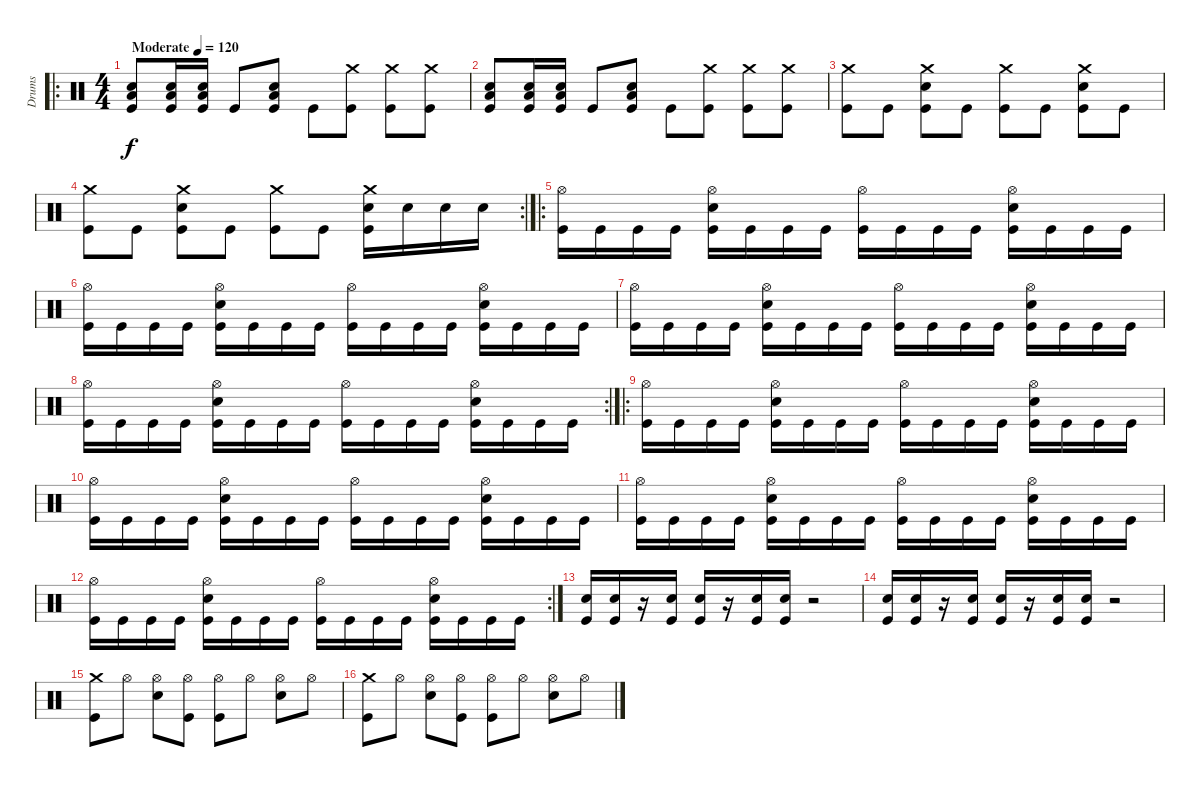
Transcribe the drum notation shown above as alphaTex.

\track ("Drums" "Drums") {instrument percussion}
\staff {score}
\articulation defaults
\ro
\ts (4 4)
\tempo (120 "Moderate")
\clef neutral
\ks c
("Snare (hit) 2" "Low Floor Tom (hit)" "Kick (hit)").8{dy f} ("Snare (hit) 2" "Low Floor Tom (hit)" "Kick (hit)").16 ("Snare (hit) 2" "Low Floor Tom (hit)" "Kick (hit)").16 "Kick (hit)".8 ("Snare (hit) 2" "Low Floor Tom (hit)" "Kick (hit)").8 "Kick (hit)".8 ("Crash medium (hit)" "Kick (hit)").8 ("Crash medium (hit)" "Kick (hit)").8 ("Crash medium (hit)" "Kick (hit)").8 |
("Snare (hit) 2" "Low Floor Tom (hit)" "Kick (hit)").8 ("Snare (hit) 2" "Low Floor Tom (hit)" "Kick (hit)").16 ("Snare (hit) 2" "Low Floor Tom (hit)" "Kick (hit)").16 "Kick (hit)".8 ("Snare (hit) 2" "Low Floor Tom (hit)" "Kick (hit)").8 "Kick (hit)".8 ("Crash medium (hit)" "Kick (hit)").8 ("Crash medium (hit)" "Kick (hit)").8 ("Crash medium (hit)" "Kick (hit)").8 |
("Crash medium (hit)" "Kick (hit)").8 "Kick (hit)".8 ("Crash medium (hit)" "Snare (hit) 2" "Kick (hit)").8 "Kick (hit)".8 ("Crash medium (hit)" "Kick (hit)").8 "Kick (hit)".8 ("Crash medium (hit)" "Snare (hit) 2" "Kick (hit)").8 "Kick (hit)".8 |
\rc 2
("Crash medium (hit)" "Kick (hit)").8 "Kick (hit)".8 ("Crash medium (hit)" "Snare (hit) 2" "Kick (hit)").8 "Kick (hit)".8 ("Crash medium (hit)" "Kick (hit)").8 "Kick (hit)".8 ("Crash medium (hit)" "Snare (hit) 2" "Kick (hit)").16 "Snare (hit) 2".16 "Snare (hit) 2".16 "Snare (hit) 2".16 |
\ro
("Hi-Hat (open)" "Kick (hit)").16 "Kick (hit)".16 "Kick (hit)".16 "Kick (hit)".16 ("Hi-Hat (open)" "Snare (hit) 2" "Kick (hit)").16 "Kick (hit)".16 "Kick (hit)".16 "Kick (hit)".16 ("Hi-Hat (open)" "Kick (hit)").16 "Kick (hit)".16 "Kick (hit)".16 "Kick (hit)".16 ("Hi-Hat (open)" "Snare (hit) 2" "Kick (hit)").16 "Kick (hit)".16 "Kick (hit)".16 "Kick (hit)".16 |
("Hi-Hat (open)" "Kick (hit)").16 "Kick (hit)".16 "Kick (hit)".16 "Kick (hit)".16 ("Hi-Hat (open)" "Snare (hit) 2" "Kick (hit)").16 "Kick (hit)".16 "Kick (hit)".16 "Kick (hit)".16 ("Hi-Hat (open)" "Kick (hit)").16 "Kick (hit)".16 "Kick (hit)".16 "Kick (hit)".16 ("Hi-Hat (open)" "Snare (hit) 2" "Kick (hit)").16 "Kick (hit)".16 "Kick (hit)".16 "Kick (hit)".16 |
("Hi-Hat (open)" "Kick (hit)").16 "Kick (hit)".16 "Kick (hit)".16 "Kick (hit)".16 ("Hi-Hat (open)" "Snare (hit) 2" "Kick (hit)").16 "Kick (hit)".16 "Kick (hit)".16 "Kick (hit)".16 ("Hi-Hat (open)" "Kick (hit)").16 "Kick (hit)".16 "Kick (hit)".16 "Kick (hit)".16 ("Hi-Hat (open)" "Snare (hit) 2" "Kick (hit)").16 "Kick (hit)".16 "Kick (hit)".16 "Kick (hit)".16 |
\rc 2
("Hi-Hat (open)" "Kick (hit)").16 "Kick (hit)".16 "Kick (hit)".16 "Kick (hit)".16 ("Hi-Hat (open)" "Snare (hit) 2" "Kick (hit)").16 "Kick (hit)".16 "Kick (hit)".16 "Kick (hit)".16 ("Hi-Hat (open)" "Kick (hit)").16 "Kick (hit)".16 "Kick (hit)".16 "Kick (hit)".16 ("Hi-Hat (open)" "Snare (hit) 2" "Kick (hit)").16 "Kick (hit)".16 "Kick (hit)".16 "Kick (hit)".16 |
\ro
("Hi-Hat (open)" "Kick (hit)").16 "Kick (hit)".16 "Kick (hit)".16 "Kick (hit)".16 ("Hi-Hat (open)" "Snare (hit) 2" "Kick (hit)").16 "Kick (hit)".16 "Kick (hit)".16 "Kick (hit)".16 ("Hi-Hat (open)" "Kick (hit)").16 "Kick (hit)".16 "Kick (hit)".16 "Kick (hit)".16 ("Hi-Hat (open)" "Snare (hit) 2" "Kick (hit)").16 "Kick (hit)".16 "Kick (hit)".16 "Kick (hit)".16 |
("Hi-Hat (open)" "Kick (hit)").16 "Kick (hit)".16 "Kick (hit)".16 "Kick (hit)".16 ("Hi-Hat (open)" "Snare (hit) 2" "Kick (hit)").16 "Kick (hit)".16 "Kick (hit)".16 "Kick (hit)".16 ("Hi-Hat (open)" "Kick (hit)").16 "Kick (hit)".16 "Kick (hit)".16 "Kick (hit)".16 ("Hi-Hat (open)" "Snare (hit) 2" "Kick (hit)").16 "Kick (hit)".16 "Kick (hit)".16 "Kick (hit)".16 |
("Hi-Hat (open)" "Kick (hit)").16 "Kick (hit)".16 "Kick (hit)".16 "Kick (hit)".16 ("Hi-Hat (open)" "Snare (hit) 2" "Kick (hit)").16 "Kick (hit)".16 "Kick (hit)".16 "Kick (hit)".16 ("Hi-Hat (open)" "Kick (hit)").16 "Kick (hit)".16 "Kick (hit)".16 "Kick (hit)".16 ("Hi-Hat (open)" "Snare (hit) 2" "Kick (hit)").16 "Kick (hit)".16 "Kick (hit)".16 "Kick (hit)".16 |
\rc 2
("Hi-Hat (open)" "Kick (hit)").16 "Kick (hit)".16 "Kick (hit)".16 "Kick (hit)".16 ("Hi-Hat (open)" "Snare (hit) 2" "Kick (hit)").16 "Kick (hit)".16 "Kick (hit)".16 "Kick (hit)".16 ("Hi-Hat (open)" "Kick (hit)").16 "Kick (hit)".16 "Kick (hit)".16 "Kick (hit)".16 ("Hi-Hat (open)" "Snare (hit) 2" "Kick (hit)").16 "Kick (hit)".16 "Kick (hit)".16 "Kick (hit)".16 |
("Snare (hit) 2" "Kick (hit)").16 ("Snare (hit) 2" "Kick (hit)").16 r.16 ("Snare (hit) 2" "Kick (hit)").16 ("Snare (hit) 2" "Kick (hit)").16 r.16 ("Snare (hit) 2" "Kick (hit)").16 ("Snare (hit) 2" "Kick (hit)").16 r.2 |
("Snare (hit) 2" "Kick (hit)").16 ("Snare (hit) 2" "Kick (hit)").16 r.16 ("Snare (hit) 2" "Kick (hit)").16 ("Snare (hit) 2" "Kick (hit)").16 r.16 ("Snare (hit) 2" "Kick (hit)").16 ("Snare (hit) 2" "Kick (hit)").16 r.2 |
("Crash medium (hit)" "Kick (hit)").8 "Hi-Hat (open)".8 ("Hi-Hat (open)" "Snare (hit) 2").8 ("Hi-Hat (open)" "Kick (hit)").8 ("Hi-Hat (open)" "Kick (hit)").8 "Hi-Hat (open)".8 ("Hi-Hat (open)" "Snare (hit) 2").8 "Hi-Hat (open)".8 |
("Crash medium (hit)" "Kick (hit)").8 "Hi-Hat (open)".8 ("Hi-Hat (open)" "Snare (hit) 2").8 ("Hi-Hat (open)" "Kick (hit)").8 ("Hi-Hat (open)" "Kick (hit)").8 "Hi-Hat (open)".8 ("Hi-Hat (open)" "Snare (hit) 2").8 "Hi-Hat (open)".8
